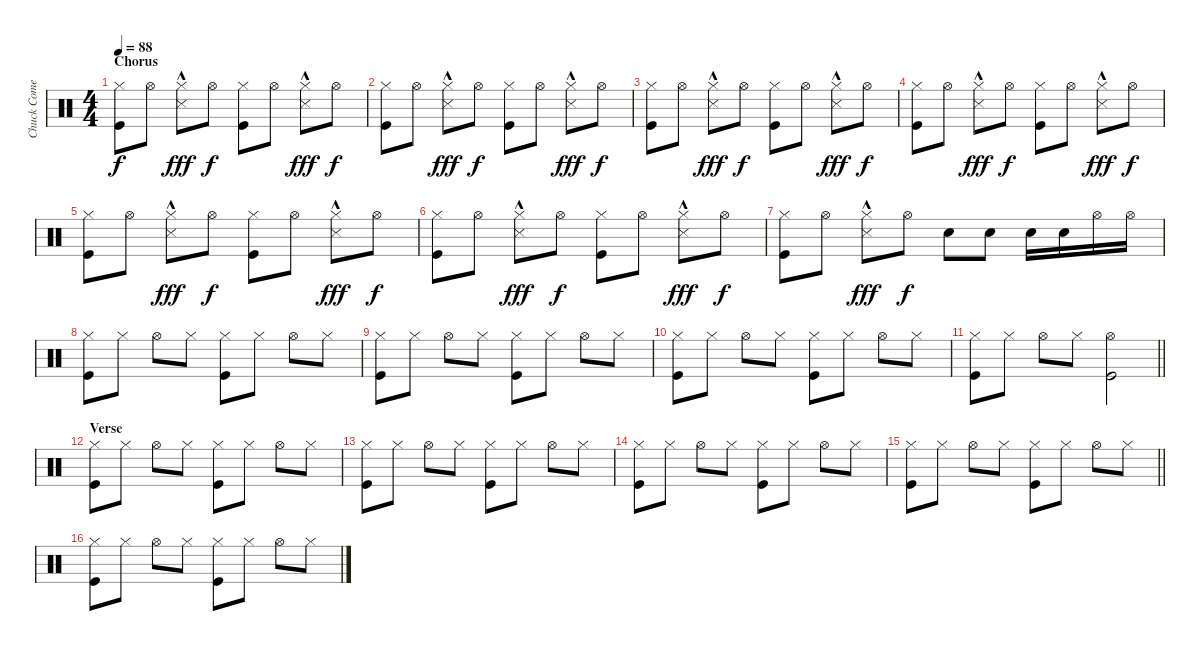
\track ("Chuck Comeau" "Chuck Come") {instrument percussion}
\staff {score}
\articulation defaults
\ts (4 4)
\section ("" "Chorus")
\tempo 88
\clef neutral
\ks c
("Hi-Hat (closed)" "Kick (hit)").8{dy f} "Hi-Hat (open)".8 ("Hi-Hat (closed)" "Snare (side stick) 3"{hac}).8{dy fff} "Hi-Hat (open)".8{dy f} ("Hi-Hat (closed)" "Kick (hit)").8 "Hi-Hat (open)".8 ("Hi-Hat (closed)" "Snare (side stick) 3"{hac}).8{dy fff} "Hi-Hat (open)".8{dy f} |
("Hi-Hat (closed)" "Kick (hit)").8 "Hi-Hat (open)".8 ("Hi-Hat (closed)" "Snare (side stick) 3"{hac}).8{dy fff} "Hi-Hat (open)".8{dy f} ("Hi-Hat (closed)" "Kick (hit)").8 "Hi-Hat (open)".8 ("Hi-Hat (closed)" "Snare (side stick) 3"{hac}).8{dy fff} "Hi-Hat (open)".8{dy f} |
("Hi-Hat (closed)" "Kick (hit)").8 "Hi-Hat (open)".8 ("Hi-Hat (closed)" "Snare (side stick) 3"{hac}).8{dy fff} "Hi-Hat (open)".8{dy f} ("Hi-Hat (closed)" "Kick (hit)").8 "Hi-Hat (open)".8 ("Hi-Hat (closed)" "Snare (side stick) 3"{hac}).8{dy fff} "Hi-Hat (open)".8{dy f} |
("Hi-Hat (closed)" "Kick (hit)").8 "Hi-Hat (open)".8 ("Hi-Hat (closed)" "Snare (side stick) 3"{hac}).8{dy fff} "Hi-Hat (open)".8{dy f} ("Hi-Hat (closed)" "Kick (hit)").8 "Hi-Hat (open)".8 ("Hi-Hat (closed)" "Snare (side stick) 3"{hac}).8{dy fff} "Hi-Hat (open)".8{dy f} |
("Hi-Hat (closed)" "Kick (hit)").8 "Hi-Hat (open)".8 ("Hi-Hat (closed)" "Snare (side stick) 3"{hac}).8{dy fff} "Hi-Hat (open)".8{dy f} ("Hi-Hat (closed)" "Kick (hit)").8 "Hi-Hat (open)".8 ("Hi-Hat (closed)" "Snare (side stick) 3"{hac}).8{dy fff} "Hi-Hat (open)".8{dy f} |
("Hi-Hat (closed)" "Kick (hit)").8 "Hi-Hat (open)".8 ("Hi-Hat (closed)" "Snare (side stick) 3"{hac}).8{dy fff} "Hi-Hat (open)".8{dy f} ("Hi-Hat (closed)" "Kick (hit)").8 "Hi-Hat (open)".8 ("Hi-Hat (closed)" "Snare (side stick) 3"{hac}).8{dy fff} "Hi-Hat (open)".8{dy f} |
("Hi-Hat (closed)" "Kick (hit)").8 "Hi-Hat (open)".8 ("Hi-Hat (closed)" "Metronome (hit)"{hac}).8{dy fff} "Hi-Hat (open)".8{dy f} "Snare (hit) 2".8 "Snare (hit) 2".8 "Snare (hit) 2".16 "Snare (hit) 2".16 "Hi-Hat (open)".16 "Hi-Hat (open)".16 |
("Hi-Hat (closed)" "Kick (hit)").8 "Hi-Hat (closed)".8 "Hi-Hat (open)".8 "Hi-Hat (closed)".8 ("Hi-Hat (closed)" "Kick (hit)").8 "Hi-Hat (closed)".8 "Hi-Hat (open)".8 "Hi-Hat (closed)".8 |
("Hi-Hat (closed)" "Kick (hit)").8 "Hi-Hat (closed)".8 "Hi-Hat (open)".8 "Hi-Hat (closed)".8 ("Hi-Hat (closed)" "Kick (hit)").8 "Hi-Hat (closed)".8 "Hi-Hat (open)".8 "Hi-Hat (closed)".8 |
("Hi-Hat (closed)" "Kick (hit)").8 "Hi-Hat (closed)".8 "Hi-Hat (open)".8 "Hi-Hat (closed)".8 ("Hi-Hat (closed)" "Kick (hit)").8 "Hi-Hat (closed)".8 "Hi-Hat (open)".8 "Hi-Hat (closed)".8 |
\barLineRight lightlight
("Hi-Hat (closed)" "Kick (hit)").8 "Hi-Hat (closed)".8 "Hi-Hat (open)".8 "Hi-Hat (closed)".8 ("Hi-Hat (open)" "Kick (hit)").2 |
\section ("" "Verse")
("Hi-Hat (closed)" "Kick (hit)").8 "Hi-Hat (closed)".8 "Hi-Hat (open)".8 "Hi-Hat (closed)".8 ("Hi-Hat (closed)" "Kick (hit)").8 "Hi-Hat (closed)".8 "Hi-Hat (open)".8 "Hi-Hat (closed)".8 |
("Hi-Hat (closed)" "Kick (hit)").8 "Hi-Hat (closed)".8 "Hi-Hat (open)".8 "Hi-Hat (closed)".8 ("Hi-Hat (closed)" "Kick (hit)").8 "Hi-Hat (closed)".8 "Hi-Hat (open)".8 "Hi-Hat (closed)".8 |
("Hi-Hat (closed)" "Kick (hit)").8 "Hi-Hat (closed)".8 "Hi-Hat (open)".8 "Hi-Hat (closed)".8 ("Hi-Hat (closed)" "Kick (hit)").8 "Hi-Hat (closed)".8 "Hi-Hat (open)".8 "Hi-Hat (closed)".8 |
\barLineRight lightlight
("Hi-Hat (closed)" "Kick (hit)").8 "Hi-Hat (closed)".8 "Hi-Hat (open)".8 "Hi-Hat (closed)".8 ("Hi-Hat (closed)" "Kick (hit)").8 "Hi-Hat (closed)".8 "Hi-Hat (open)".8 "Hi-Hat (closed)".8 |
("Hi-Hat (closed)" "Kick (hit)").8 "Hi-Hat (closed)".8 "Hi-Hat (open)".8 "Hi-Hat (closed)".8 ("Hi-Hat (closed)" "Kick (hit)").8 "Hi-Hat (closed)".8 "Hi-Hat (open)".8 "Hi-Hat (closed)".8
